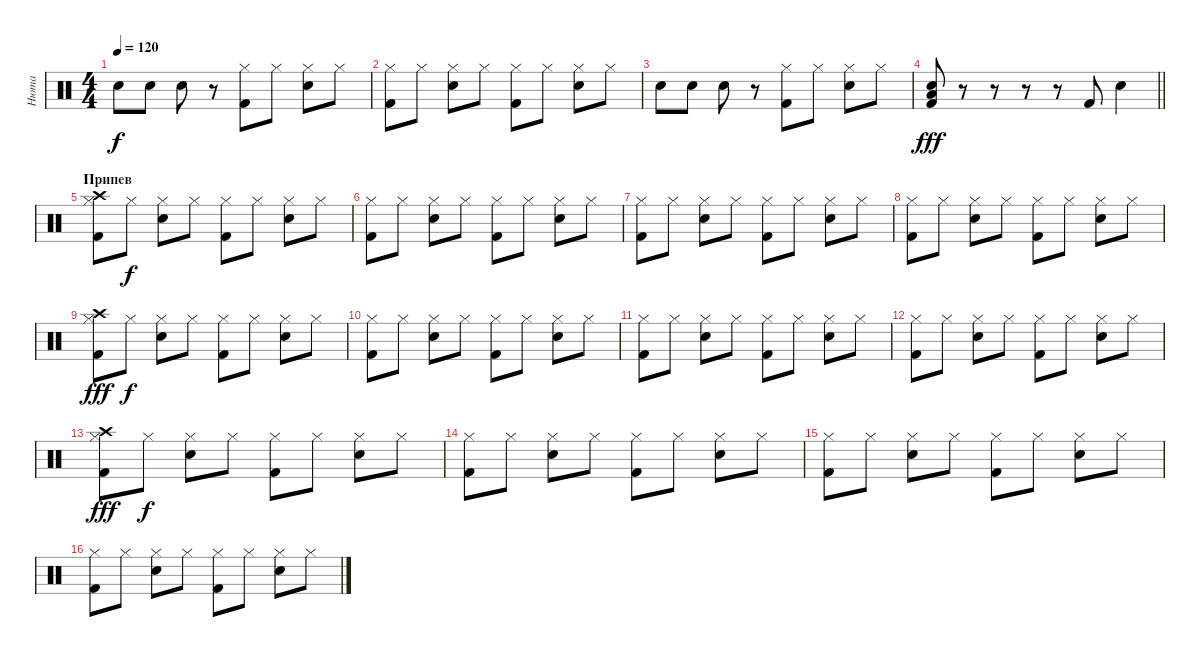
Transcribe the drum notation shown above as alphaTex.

\track ("Нюта" "Нюта") {instrument percussion}
\staff {score}
\articulation defaults
\ts (4 4)
\tempo 120
\clef neutral
\ks c "Electric Snare (hit)".8{dy f} "Electric Snare (hit)".8 "Electric Snare (hit)".8
r.8 ("Hi-Hat (closed)" "Kick (hit) 2").8 "Hi-Hat (closed)".8 ("Hi-Hat (closed)" "Electric Snare (hit)").8 "Hi-Hat (closed)".8 |
("Hi-Hat (closed)" "Kick (hit) 2").8 "Hi-Hat (closed)".8 ("Hi-Hat (closed)" "Electric Snare (hit)").8 "Hi-Hat (closed)".8 ("Hi-Hat (closed)" "Kick (hit) 2").8 "Hi-Hat (closed)".8 ("Hi-Hat (closed)" "Electric Snare (hit)").8 "Hi-Hat (closed)".8 |
"Electric Snare (hit)".8 "Electric Snare (hit)".8 "Electric Snare (hit)".8 r.8 ("Hi-Hat (closed)" "Kick (hit) 2").8 "Hi-Hat (closed)".8 ("Hi-Hat (closed)" "Electric Snare (hit)").8 "Hi-Hat (closed)".8 |
\barLineRight lightlight
("Kick (hit) 2" "Low Floor Tom (hit)" "Snare (hit) 2").8{dy fff} r.8 r.8 r.8 r.8 "Kick (hit) 2".8 "Electric Snare (hit)".4 |
\section ("" "Припев")
("Hi-Hat (closed)" "Kick (hit) 2" "Crash high (hit)").8 "Hi-Hat (closed)".8{dy f} ("Hi-Hat (closed)" "Electric Snare (hit)").8 "Hi-Hat (closed)".8 ("Hi-Hat (closed)" "Kick (hit) 2").8 "Hi-Hat (closed)".8 ("Hi-Hat (closed)" "Electric Snare (hit)").8 "Hi-Hat (closed)".8 |
("Hi-Hat (closed)" "Kick (hit) 2").8 "Hi-Hat (closed)".8 ("Hi-Hat (closed)" "Electric Snare (hit)").8 "Hi-Hat (closed)".8 ("Hi-Hat (closed)" "Kick (hit) 2").8 "Hi-Hat (closed)".8 ("Hi-Hat (closed)" "Electric Snare (hit)").8 "Hi-Hat (closed)".8 |
("Hi-Hat (closed)" "Kick (hit) 2").8 "Hi-Hat (closed)".8 ("Hi-Hat (closed)" "Electric Snare (hit)").8 "Hi-Hat (closed)".8 ("Hi-Hat (closed)" "Kick (hit) 2").8 "Hi-Hat (closed)".8 ("Hi-Hat (closed)" "Electric Snare (hit)").8 "Hi-Hat (closed)".8 |
("Hi-Hat (closed)" "Kick (hit) 2").8 "Hi-Hat (closed)".8 ("Hi-Hat (closed)" "Electric Snare (hit)").8 "Hi-Hat (closed)".8 ("Hi-Hat (closed)" "Kick (hit) 2").8 "Hi-Hat (closed)".8 ("Hi-Hat (closed)" "Electric Snare (hit)").8 "Hi-Hat (closed)".8 |
("Hi-Hat (closed)" "Kick (hit) 2" "Crash high (hit)").8{dy fff} "Hi-Hat (closed)".8{dy f} ("Hi-Hat (closed)" "Electric Snare (hit)").8 "Hi-Hat (closed)".8 ("Hi-Hat (closed)" "Kick (hit) 2").8 "Hi-Hat (closed)".8 ("Hi-Hat (closed)" "Electric Snare (hit)").8 "Hi-Hat (closed)".8 |
("Hi-Hat (closed)" "Kick (hit) 2").8 "Hi-Hat (closed)".8 ("Hi-Hat (closed)" "Electric Snare (hit)").8 "Hi-Hat (closed)".8 ("Hi-Hat (closed)" "Kick (hit) 2").8 "Hi-Hat (closed)".8 ("Hi-Hat (closed)" "Electric Snare (hit)").8 "Hi-Hat (closed)".8 |
("Hi-Hat (closed)" "Kick (hit) 2").8 "Hi-Hat (closed)".8 ("Hi-Hat (closed)" "Electric Snare (hit)").8 "Hi-Hat (closed)".8 ("Hi-Hat (closed)" "Kick (hit) 2").8 "Hi-Hat (closed)".8 ("Hi-Hat (closed)" "Electric Snare (hit)").8 "Hi-Hat (closed)".8 |
("Hi-Hat (closed)" "Kick (hit) 2").8 "Hi-Hat (closed)".8 ("Hi-Hat (closed)" "Electric Snare (hit)").8 "Hi-Hat (closed)".8 ("Hi-Hat (closed)" "Kick (hit) 2").8 "Hi-Hat (closed)".8 ("Hi-Hat (closed)" "Electric Snare (hit)").8 "Hi-Hat (closed)".8 |
("Hi-Hat (closed)" "Kick (hit) 2" "Crash high (hit)").8{dy fff} "Hi-Hat (closed)".8{dy f} ("Hi-Hat (closed)" "Electric Snare (hit)").8 "Hi-Hat (closed)".8 ("Hi-Hat (closed)" "Kick (hit) 2").8 "Hi-Hat (closed)".8 ("Hi-Hat (closed)" "Electric Snare (hit)").8 "Hi-Hat (closed)".8 |
("Hi-Hat (closed)" "Kick (hit) 2").8 "Hi-Hat (closed)".8 ("Hi-Hat (closed)" "Electric Snare (hit)").8 "Hi-Hat (closed)".8 ("Hi-Hat (closed)" "Kick (hit) 2").8 "Hi-Hat (closed)".8 ("Hi-Hat (closed)" "Electric Snare (hit)").8 "Hi-Hat (closed)".8 |
("Hi-Hat (closed)" "Kick (hit) 2").8 "Hi-Hat (closed)".8 ("Hi-Hat (closed)" "Electric Snare (hit)").8 "Hi-Hat (closed)".8 ("Hi-Hat (closed)" "Kick (hit) 2").8 "Hi-Hat (closed)".8 ("Hi-Hat (closed)" "Electric Snare (hit)").8 "Hi-Hat (closed)".8 |
("Hi-Hat (closed)" "Kick (hit) 2").8 "Hi-Hat (closed)".8 ("Hi-Hat (closed)" "Electric Snare (hit)").8 "Hi-Hat (closed)".8 ("Hi-Hat (closed)" "Kick (hit) 2").8 "Hi-Hat (closed)".8 ("Hi-Hat (closed)" "Electric Snare (hit)").8 "Hi-Hat (closed)".8
